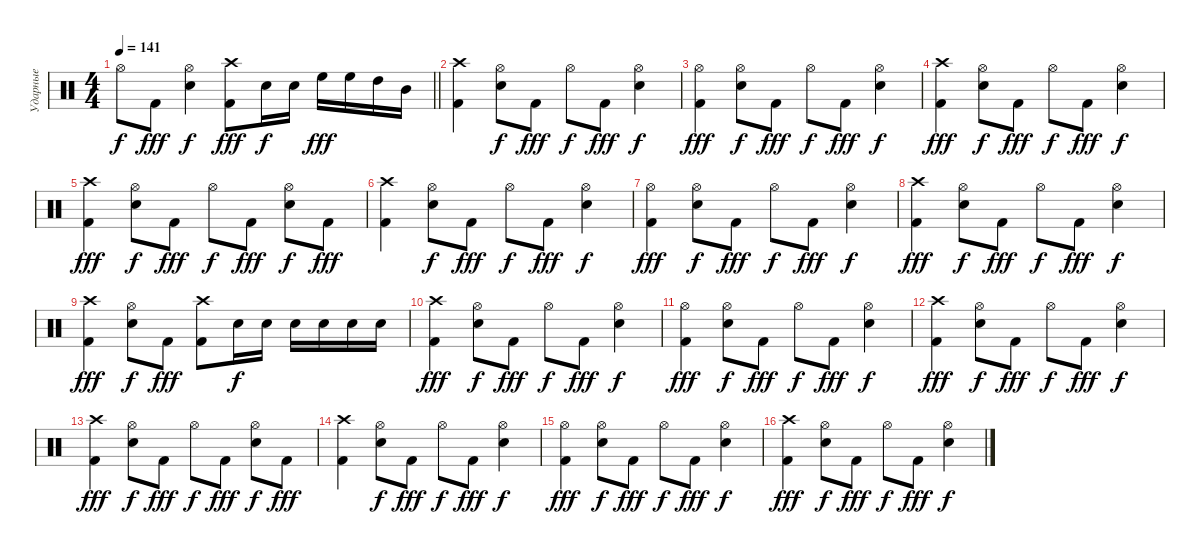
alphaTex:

\track ("Ударные" "Ударные") {instrument percussion}
\staff {score}
\articulation defaults
\ts (4 4)
\tempo 141
\clef neutral
\barLineRight lightlight
\ks c "Hi-Hat (open)".8{dy f} "Kick (hit) 2".8{dy fff}
("Snare (hit) 2" "Hi-Hat (open)").4{dy f} ("Kick (hit) 2" "Crash high (hit)").8{dy fff} "Snare (hit) 2".16{dy f} "Snare (hit) 2".16 "High Floor Tom (hit)".16{dy fff} "High Floor Tom (hit)".16 "High Tom (hit)".16 "Mid Tom (hit)".16 |
("Kick (hit) 2" "Crash high (hit)").4 ("Snare (hit) 2" "Hi-Hat (open)").8{dy f} "Kick (hit) 2".8{dy fff} "Hi-Hat (open)".8{dy f} "Kick (hit) 2".8{dy fff} ("Snare (hit) 2" "Hi-Hat (open)").4{dy f} |
("Kick (hit) 2" "Hi-Hat (open)").4{dy fff} ("Snare (hit) 2" "Hi-Hat (open)").8{dy f} "Kick (hit) 2".8{dy fff} "Hi-Hat (open)".8{dy f} "Kick (hit) 2".8{dy fff} ("Snare (hit) 2" "Hi-Hat (open)").4{dy f} |
("Kick (hit) 2" "Crash high (hit)").4{dy fff} ("Snare (hit) 2" "Hi-Hat (open)").8{dy f} "Kick (hit) 2".8{dy fff} "Hi-Hat (open)".8{dy f} "Kick (hit) 2".8{dy fff} ("Snare (hit) 2" "Hi-Hat (open)").4{dy f} |
("Kick (hit) 2" "Crash high (hit)").4{dy fff} ("Snare (hit) 2" "Hi-Hat (open)").8{dy f} "Kick (hit) 2".8{dy fff} "Hi-Hat (open)".8{dy f} "Kick (hit) 2".8{dy fff} ("Snare (hit) 2" "Hi-Hat (open)").8{dy f} "Kick (hit) 2".8{dy fff} |
("Kick (hit) 2" "Crash high (hit)").4 ("Snare (hit) 2" "Hi-Hat (open)").8{dy f} "Kick (hit) 2".8{dy fff} "Hi-Hat (open)".8{dy f} "Kick (hit) 2".8{dy fff} ("Snare (hit) 2" "Hi-Hat (open)").4{dy f} |
("Kick (hit) 2" "Hi-Hat (open)").4{dy fff} ("Snare (hit) 2" "Hi-Hat (open)").8{dy f} "Kick (hit) 2".8{dy fff} "Hi-Hat (open)".8{dy f} "Kick (hit) 2".8{dy fff} ("Snare (hit) 2" "Hi-Hat (open)").4{dy f} |
("Kick (hit) 2" "Crash high (hit)").4{dy fff} ("Snare (hit) 2" "Hi-Hat (open)").8{dy f} "Kick (hit) 2".8{dy fff} "Hi-Hat (open)".8{dy f} "Kick (hit) 2".8{dy fff} ("Snare (hit) 2" "Hi-Hat (open)").4{dy f} |
("Kick (hit) 2" "Crash high (hit)").4{dy fff} ("Snare (hit) 2" "Hi-Hat (open)").8{dy f} "Kick (hit) 2".8{dy fff} ("Kick (hit) 2" "Crash high (hit)").8 "Snare (hit) 2".16{dy f} "Snare (hit) 2".16 "Snare (hit) 2".16 "Snare (hit) 2".16 "Snare (hit) 2".16 "Snare (hit) 2".16 |
("Kick (hit) 2" "Crash high (hit)").4{dy fff} ("Snare (hit) 2" "Hi-Hat (open)").8{dy f} "Kick (hit) 2".8{dy fff} "Hi-Hat (open)".8{dy f} "Kick (hit) 2".8{dy fff} ("Snare (hit) 2" "Hi-Hat (open)").4{dy f} |
("Kick (hit) 2" "Hi-Hat (open)").4{dy fff} ("Snare (hit) 2" "Hi-Hat (open)").8{dy f} "Kick (hit) 2".8{dy fff} "Hi-Hat (open)".8{dy f} "Kick (hit) 2".8{dy fff} ("Snare (hit) 2" "Hi-Hat (open)").4{dy f} |
("Kick (hit) 2" "Crash high (hit)").4{dy fff} ("Snare (hit) 2" "Hi-Hat (open)").8{dy f} "Kick (hit) 2".8{dy fff} "Hi-Hat (open)".8{dy f} "Kick (hit) 2".8{dy fff} ("Snare (hit) 2" "Hi-Hat (open)").4{dy f} |
("Kick (hit) 2" "Crash high (hit)").4{dy fff} ("Snare (hit) 2" "Hi-Hat (open)").8{dy f} "Kick (hit) 2".8{dy fff} "Hi-Hat (open)".8{dy f} "Kick (hit) 2".8{dy fff} ("Snare (hit) 2" "Hi-Hat (open)").8{dy f} "Kick (hit) 2".8{dy fff} |
("Kick (hit) 2" "Crash high (hit)").4 ("Snare (hit) 2" "Hi-Hat (open)").8{dy f} "Kick (hit) 2".8{dy fff} "Hi-Hat (open)".8{dy f} "Kick (hit) 2".8{dy fff} ("Snare (hit) 2" "Hi-Hat (open)").4{dy f} |
("Kick (hit) 2" "Hi-Hat (open)").4{dy fff} ("Snare (hit) 2" "Hi-Hat (open)").8{dy f} "Kick (hit) 2".8{dy fff} "Hi-Hat (open)".8{dy f} "Kick (hit) 2".8{dy fff} ("Snare (hit) 2" "Hi-Hat (open)").4{dy f} |
("Kick (hit) 2" "Crash high (hit)").4{dy fff} ("Snare (hit) 2" "Hi-Hat (open)").8{dy f} "Kick (hit) 2".8{dy fff} "Hi-Hat (open)".8{dy f} "Kick (hit) 2".8{dy fff} ("Snare (hit) 2" "Hi-Hat (open)").4{dy f}
